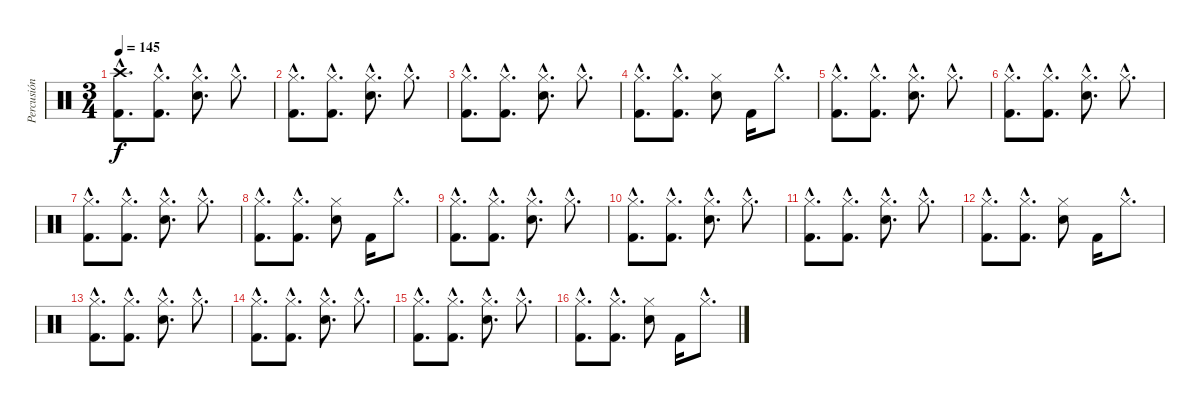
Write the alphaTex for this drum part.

\track ("Percusión" "Percusión") {instrument percussion}
\staff {score}
\articulation defaults
\ts (3 4)
\tempo 145
\clef neutral
\ks c
("Crash high (hit)"{hac} "Kick (hit) 2"{hac}).8{d dy f} ("Hi-Hat (closed)"{hac} "Kick (hit) 2"{hac}).8{d} ("Hi-Hat (closed)"{hac} "Electric Snare (hit)"{hac}).8{d} "Hi-Hat (closed)"{hac}.8{d} |
("Hi-Hat (closed)"{hac} "Kick (hit) 2"{hac}).8{d} ("Hi-Hat (closed)"{hac} "Kick (hit) 2"{hac}).8{d} ("Hi-Hat (closed)"{hac} "Electric Snare (hit)"{hac}).8{d} "Hi-Hat (closed)"{hac}.8{d} |
("Hi-Hat (closed)"{hac} "Kick (hit) 2"{hac}).8{d} ("Hi-Hat (closed)"{hac} "Kick (hit) 2"{hac}).8{d} ("Hi-Hat (closed)"{hac} "Electric Snare (hit)"{hac}).8{d} "Hi-Hat (closed)"{hac}.8{d} |
("Hi-Hat (closed)"{hac} "Kick (hit) 2"{hac}).8{d} ("Hi-Hat (closed)"{hac} "Kick (hit) 2"{hac}).8{d} ("Hi-Hat (closed)" "Electric Snare (hit)").8 "Kick (hit) 2".16 "Hi-Hat (closed)"{hac}.8{d} |
("Hi-Hat (closed)"{hac} "Kick (hit) 2"{hac}).8{d} ("Hi-Hat (closed)"{hac} "Kick (hit) 2"{hac}).8{d} ("Hi-Hat (closed)"{hac} "Electric Snare (hit)"{hac}).8{d} "Hi-Hat (closed)"{hac}.8{d} |
("Hi-Hat (closed)"{hac} "Kick (hit) 2"{hac}).8{d} ("Hi-Hat (closed)"{hac} "Kick (hit) 2"{hac}).8{d} ("Hi-Hat (closed)"{hac} "Electric Snare (hit)"{hac}).8{d} "Hi-Hat (closed)"{hac}.8{d} |
("Hi-Hat (closed)"{hac} "Kick (hit) 2"{hac}).8{d} ("Hi-Hat (closed)"{hac} "Kick (hit) 2"{hac}).8{d} ("Hi-Hat (closed)"{hac} "Electric Snare (hit)"{hac}).8{d} "Hi-Hat (closed)"{hac}.8{d} |
("Hi-Hat (closed)"{hac} "Kick (hit) 2"{hac}).8{d} ("Hi-Hat (closed)"{hac} "Kick (hit) 2"{hac}).8{d} ("Hi-Hat (closed)" "Electric Snare (hit)").8 "Kick (hit) 2".16 "Hi-Hat (closed)"{hac}.8{d} |
("Hi-Hat (closed)"{hac} "Kick (hit) 2"{hac}).8{d} ("Hi-Hat (closed)"{hac} "Kick (hit) 2"{hac}).8{d} ("Hi-Hat (closed)"{hac} "Electric Snare (hit)"{hac}).8{d} "Hi-Hat (closed)"{hac}.8{d} |
("Hi-Hat (closed)"{hac} "Kick (hit) 2"{hac}).8{d} ("Hi-Hat (closed)"{hac} "Kick (hit) 2"{hac}).8{d} ("Hi-Hat (closed)"{hac} "Electric Snare (hit)"{hac}).8{d} "Hi-Hat (closed)"{hac}.8{d} |
("Hi-Hat (closed)"{hac} "Kick (hit) 2"{hac}).8{d} ("Hi-Hat (closed)"{hac} "Kick (hit) 2"{hac}).8{d} ("Hi-Hat (closed)"{hac} "Electric Snare (hit)"{hac}).8{d} "Hi-Hat (closed)"{hac}.8{d} |
("Hi-Hat (closed)"{hac} "Kick (hit) 2"{hac}).8{d} ("Hi-Hat (closed)"{hac} "Kick (hit) 2"{hac}).8{d} ("Hi-Hat (closed)" "Electric Snare (hit)").8 "Kick (hit) 2".16 "Hi-Hat (closed)"{hac}.8{d} |
("Hi-Hat (closed)"{hac} "Kick (hit) 2"{hac}).8{d} ("Hi-Hat (closed)"{hac} "Kick (hit) 2"{hac}).8{d} ("Hi-Hat (closed)"{hac} "Electric Snare (hit)"{hac}).8{d} "Hi-Hat (closed)"{hac}.8{d} |
("Hi-Hat (closed)"{hac} "Kick (hit) 2"{hac}).8{d} ("Hi-Hat (closed)"{hac} "Kick (hit) 2"{hac}).8{d} ("Hi-Hat (closed)"{hac} "Electric Snare (hit)"{hac}).8{d} "Hi-Hat (closed)"{hac}.8{d} |
("Hi-Hat (closed)"{hac} "Kick (hit) 2"{hac}).8{d} ("Hi-Hat (closed)"{hac} "Kick (hit) 2"{hac}).8{d} ("Hi-Hat (closed)"{hac} "Electric Snare (hit)"{hac}).8{d} "Hi-Hat (closed)"{hac}.8{d} |
("Hi-Hat (closed)"{hac} "Kick (hit) 2"{hac}).8{d} ("Hi-Hat (closed)"{hac} "Kick (hit) 2"{hac}).8{d} ("Hi-Hat (closed)" "Electric Snare (hit)").8 "Kick (hit) 2".16 "Hi-Hat (closed)"{hac}.8{d}
